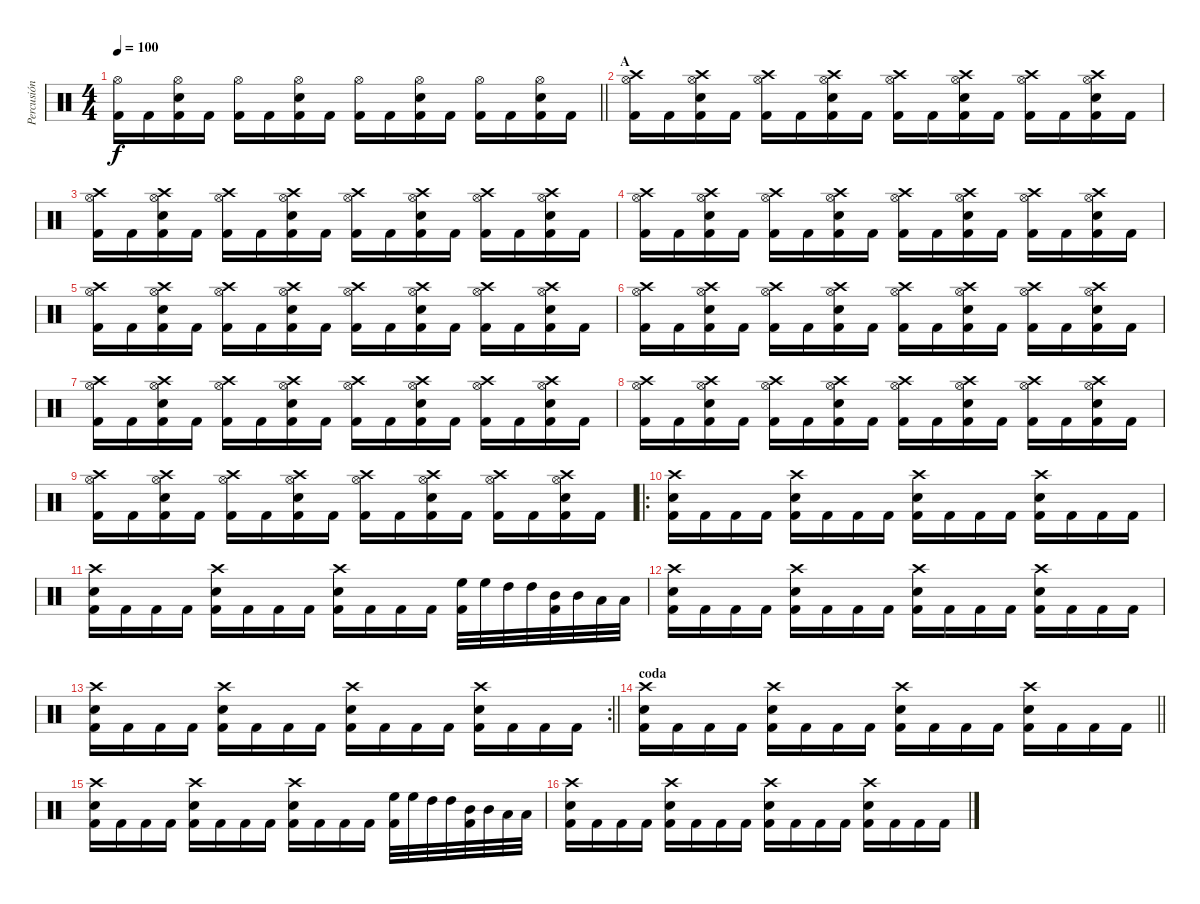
\track ("Percusión" "Percusión") {instrument percussion bank 1}
\staff {score}
\articulation defaults
\ts (4 4)
\tempo 100
\clef neutral
\barLineRight lightlight
\ks c
("Hi-Hat (open)" "Kick (hit) 2").16{dy f} "Kick (hit) 2".16 ("Snare (hit) 2" "Hi-Hat (open)" "Kick (hit) 2").16 "Kick (hit) 2".16 ("Hi-Hat (open)" "Kick (hit) 2").16 "Kick (hit) 2".16 ("Snare (hit) 2" "Hi-Hat (open)" "Kick (hit) 2").16 "Kick (hit) 2".16 ("Hi-Hat (open)" "Kick (hit) 2").16 "Kick (hit) 2".16 ("Snare (hit) 2" "Hi-Hat (open)" "Kick (hit) 2").16 "Kick (hit) 2".16 ("Hi-Hat (open)" "Kick (hit) 2").16 "Kick (hit) 2".16 ("Snare (hit) 2" "Hi-Hat (open)" "Kick (hit) 2").16 "Kick (hit) 2".16 |
\section ("" "A")
("Hi-Hat (open)" "Kick (hit) 2" "Crash high (hit)").16 "Kick (hit) 2".16 ("Snare (hit) 2" "Hi-Hat (open)" "Kick (hit) 2" "Crash high (hit)").16 "Kick (hit) 2".16 ("Hi-Hat (open)" "Kick (hit) 2" "Crash high (hit)").16 "Kick (hit) 2".16 ("Snare (hit) 2" "Hi-Hat (open)" "Kick (hit) 2" "Crash high (hit)").16 "Kick (hit) 2".16 ("Hi-Hat (open)" "Kick (hit) 2" "Crash high (hit)").16 "Kick (hit) 2".16 ("Snare (hit) 2" "Hi-Hat (open)" "Kick (hit) 2" "Crash high (hit)").16 "Kick (hit) 2".16 ("Hi-Hat (open)" "Kick (hit) 2" "Crash high (hit)").16 "Kick (hit) 2".16 ("Snare (hit) 2" "Hi-Hat (open)" "Kick (hit) 2" "Crash high (hit)").16 "Kick (hit) 2".16 |
("Hi-Hat (open)" "Kick (hit) 2" "Crash high (hit)").16 "Kick (hit) 2".16 ("Snare (hit) 2" "Hi-Hat (open)" "Kick (hit) 2" "Crash high (hit)").16 "Kick (hit) 2".16 ("Hi-Hat (open)" "Kick (hit) 2" "Crash high (hit)").16 "Kick (hit) 2".16 ("Snare (hit) 2" "Hi-Hat (open)" "Kick (hit) 2" "Crash high (hit)").16 "Kick (hit) 2".16 ("Hi-Hat (open)" "Kick (hit) 2" "Crash high (hit)").16 "Kick (hit) 2".16 ("Snare (hit) 2" "Hi-Hat (open)" "Kick (hit) 2" "Crash high (hit)").16 "Kick (hit) 2".16 ("Hi-Hat (open)" "Kick (hit) 2" "Crash high (hit)").16 "Kick (hit) 2".16 ("Snare (hit) 2" "Hi-Hat (open)" "Kick (hit) 2" "Crash high (hit)").16 "Kick (hit) 2".16 |
("Hi-Hat (open)" "Kick (hit) 2" "Crash high (hit)").16 "Kick (hit) 2".16 ("Snare (hit) 2" "Hi-Hat (open)" "Kick (hit) 2" "Crash high (hit)").16 "Kick (hit) 2".16 ("Hi-Hat (open)" "Kick (hit) 2" "Crash high (hit)").16 "Kick (hit) 2".16 ("Snare (hit) 2" "Hi-Hat (open)" "Kick (hit) 2" "Crash high (hit)").16 "Kick (hit) 2".16 ("Hi-Hat (open)" "Kick (hit) 2" "Crash high (hit)").16 "Kick (hit) 2".16 ("Snare (hit) 2" "Hi-Hat (open)" "Kick (hit) 2" "Crash high (hit)").16 "Kick (hit) 2".16 ("Hi-Hat (open)" "Kick (hit) 2" "Crash high (hit)").16 "Kick (hit) 2".16 ("Snare (hit) 2" "Hi-Hat (open)" "Kick (hit) 2" "Crash high (hit)").16 "Kick (hit) 2".16 |
("Hi-Hat (open)" "Kick (hit) 2" "Crash high (hit)").16 "Kick (hit) 2".16 ("Snare (hit) 2" "Hi-Hat (open)" "Kick (hit) 2" "Crash high (hit)").16 "Kick (hit) 2".16 ("Hi-Hat (open)" "Kick (hit) 2" "Crash high (hit)").16 "Kick (hit) 2".16 ("Snare (hit) 2" "Hi-Hat (open)" "Kick (hit) 2" "Crash high (hit)").16 "Kick (hit) 2".16 ("Hi-Hat (open)" "Kick (hit) 2" "Crash high (hit)").16 "Kick (hit) 2".16 ("Snare (hit) 2" "Hi-Hat (open)" "Kick (hit) 2" "Crash high (hit)").16 "Kick (hit) 2".16 ("Hi-Hat (open)" "Kick (hit) 2" "Crash high (hit)").16 "Kick (hit) 2".16 ("Snare (hit) 2" "Hi-Hat (open)" "Kick (hit) 2" "Crash high (hit)").16 "Kick (hit) 2".16 |
("Hi-Hat (open)" "Kick (hit) 2" "Crash high (hit)").16 "Kick (hit) 2".16 ("Snare (hit) 2" "Hi-Hat (open)" "Kick (hit) 2" "Crash high (hit)").16 "Kick (hit) 2".16 ("Hi-Hat (open)" "Kick (hit) 2" "Crash high (hit)").16 "Kick (hit) 2".16 ("Snare (hit) 2" "Hi-Hat (open)" "Kick (hit) 2" "Crash high (hit)").16 "Kick (hit) 2".16 ("Hi-Hat (open)" "Kick (hit) 2" "Crash high (hit)").16 "Kick (hit) 2".16 ("Snare (hit) 2" "Hi-Hat (open)" "Kick (hit) 2" "Crash high (hit)").16 "Kick (hit) 2".16 ("Hi-Hat (open)" "Kick (hit) 2" "Crash high (hit)").16 "Kick (hit) 2".16 ("Snare (hit) 2" "Hi-Hat (open)" "Kick (hit) 2" "Crash high (hit)").16 "Kick (hit) 2".16 |
("Hi-Hat (open)" "Kick (hit) 2" "Crash high (hit)").16 "Kick (hit) 2".16 ("Snare (hit) 2" "Hi-Hat (open)" "Kick (hit) 2" "Crash high (hit)").16 "Kick (hit) 2".16 ("Hi-Hat (open)" "Kick (hit) 2" "Crash high (hit)").16 "Kick (hit) 2".16 ("Snare (hit) 2" "Hi-Hat (open)" "Kick (hit) 2" "Crash high (hit)").16 "Kick (hit) 2".16 ("Hi-Hat (open)" "Kick (hit) 2" "Crash high (hit)").16 "Kick (hit) 2".16 ("Snare (hit) 2" "Hi-Hat (open)" "Kick (hit) 2" "Crash high (hit)").16 "Kick (hit) 2".16 ("Hi-Hat (open)" "Kick (hit) 2" "Crash high (hit)").16 "Kick (hit) 2".16 ("Snare (hit) 2" "Hi-Hat (open)" "Kick (hit) 2" "Crash high (hit)").16 "Kick (hit) 2".16 |
("Hi-Hat (open)" "Kick (hit) 2" "Crash high (hit)").16 "Kick (hit) 2".16 ("Snare (hit) 2" "Hi-Hat (open)" "Kick (hit) 2" "Crash high (hit)").16 "Kick (hit) 2".16 ("Hi-Hat (open)" "Kick (hit) 2" "Crash high (hit)").16 "Kick (hit) 2".16 ("Snare (hit) 2" "Hi-Hat (open)" "Kick (hit) 2" "Crash high (hit)").16 "Kick (hit) 2".16 ("Hi-Hat (open)" "Kick (hit) 2" "Crash high (hit)").16 "Kick (hit) 2".16 ("Snare (hit) 2" "Hi-Hat (open)" "Kick (hit) 2" "Crash high (hit)").16 "Kick (hit) 2".16 ("Hi-Hat (open)" "Kick (hit) 2" "Crash high (hit)").16 "Kick (hit) 2".16 ("Snare (hit) 2" "Hi-Hat (open)" "Kick (hit) 2" "Crash high (hit)").16 "Kick (hit) 2".16 |
("Hi-Hat (open)" "Kick (hit) 2" "Crash high (hit)").16 "Kick (hit) 2".16 ("Snare (hit) 2" "Hi-Hat (open)" "Kick (hit) 2" "Crash high (hit)").16 "Kick (hit) 2".16 ("Hi-Hat (open)" "Kick (hit) 2" "Crash high (hit)").16 "Kick (hit) 2".16 ("Snare (hit) 2" "Hi-Hat (open)" "Kick (hit) 2" "Crash high (hit)").16 "Kick (hit) 2".16 ("Hi-Hat (open)" "Kick (hit) 2" "Crash high (hit)").16 "Kick (hit) 2".16 ("Snare (hit) 2" "Hi-Hat (open)" "Kick (hit) 2" "Crash high (hit)").16 "Kick (hit) 2".16 ("Hi-Hat (open)" "Kick (hit) 2" "Crash high (hit)").16 "Kick (hit) 2".16 ("Snare (hit) 2" "Hi-Hat (open)" "Kick (hit) 2" "Crash high (hit)").16 "Kick (hit) 2".16 |
\ro
("Kick (hit) 2" "Crash high (hit)" "Snare (hit) 2").16 "Kick (hit) 2".16 "Kick (hit) 2".16 "Kick (hit) 2".16 ("Kick (hit) 2" "Crash high (hit)" "Snare (hit) 2").16 "Kick (hit) 2".16 "Kick (hit) 2".16 "Kick (hit) 2".16 ("Kick (hit) 2" "Crash high (hit)" "Snare (hit) 2").16 "Kick (hit) 2".16 "Kick (hit) 2".16 "Kick (hit) 2".16 ("Crash high (hit)" "Kick (hit) 2" "Snare (hit) 2").16 "Kick (hit) 2".16 "Kick (hit) 2".16 "Kick (hit) 2".16 |
("Kick (hit) 2" "Crash high (hit)" "Snare (hit) 2").16 "Kick (hit) 2".16 "Kick (hit) 2".16 "Kick (hit) 2".16 ("Kick (hit) 2" "Crash high (hit)" "Snare (hit) 2").16 "Kick (hit) 2".16 "Kick (hit) 2".16 "Kick (hit) 2".16 ("Kick (hit) 2" "Crash high (hit)" "Snare (hit) 2").16 "Kick (hit) 2".16 "Kick (hit) 2".16 "Kick (hit) 2".16 ("High Floor Tom (hit)" "Kick (hit) 2").32 "High Floor Tom (hit)".32 "High Tom (hit)".32 "High Tom (hit)".32 ("Mid Tom (hit)" "Kick (hit) 2").32 "Mid Tom (hit)".32 "Low Tom (hit)".32 "Low Tom (hit)".32 |
("Kick (hit) 2" "Crash high (hit)" "Snare (hit) 2").16 "Kick (hit) 2".16 "Kick (hit) 2".16 "Kick (hit) 2".16 ("Kick (hit) 2" "Crash high (hit)" "Snare (hit) 2").16 "Kick (hit) 2".16 "Kick (hit) 2".16 "Kick (hit) 2".16 ("Kick (hit) 2" "Crash high (hit)" "Snare (hit) 2").16 "Kick (hit) 2".16 "Kick (hit) 2".16 "Kick (hit) 2".16 ("Crash high (hit)" "Kick (hit) 2" "Snare (hit) 2").16 "Kick (hit) 2".16 "Kick (hit) 2".16 "Kick (hit) 2".16 |
\rc 2
\barLineRight lightlight
("Kick (hit) 2" "Crash high (hit)" "Snare (hit) 2").16 "Kick (hit) 2".16 "Kick (hit) 2".16 "Kick (hit) 2".16 ("Kick (hit) 2" "Crash high (hit)" "Snare (hit) 2").16 "Kick (hit) 2".16 "Kick (hit) 2".16 "Kick (hit) 2".16 ("Kick (hit) 2" "Crash high (hit)" "Snare (hit) 2").16 "Kick (hit) 2".16 "Kick (hit) 2".16 "Kick (hit) 2".16 ("Crash high (hit)" "Kick (hit) 2" "Snare (hit) 2").16 "Kick (hit) 2".16 "Kick (hit) 2".16 "Kick (hit) 2".16 |
\section ("" "coda")
\barLineRight lightlight
("Kick (hit) 2" "Crash high (hit)" "Snare (hit) 2").16 "Kick (hit) 2".16 "Kick (hit) 2".16 "Kick (hit) 2".16 ("Kick (hit) 2" "Crash high (hit)" "Snare (hit) 2").16 "Kick (hit) 2".16 "Kick (hit) 2".16 "Kick (hit) 2".16 ("Kick (hit) 2" "Crash high (hit)" "Snare (hit) 2").16 "Kick (hit) 2".16 "Kick (hit) 2".16 "Kick (hit) 2".16 ("Crash high (hit)" "Kick (hit) 2" "Snare (hit) 2").16 "Kick (hit) 2".16 "Kick (hit) 2".16 "Kick (hit) 2".16 |
\section ("" "")
("Kick (hit) 2" "Crash high (hit)" "Snare (hit) 2").16 "Kick (hit) 2".16 "Kick (hit) 2".16 "Kick (hit) 2".16 ("Kick (hit) 2" "Crash high (hit)" "Snare (hit) 2").16 "Kick (hit) 2".16 "Kick (hit) 2".16 "Kick (hit) 2".16 ("Kick (hit) 2" "Crash high (hit)" "Snare (hit) 2").16 "Kick (hit) 2".16 "Kick (hit) 2".16 "Kick (hit) 2".16 ("High Floor Tom (hit)" "Kick (hit) 2").32 "High Floor Tom (hit)".32 "High Tom (hit)".32 "High Tom (hit)".32 ("Mid Tom (hit)" "Kick (hit) 2").32 "Mid Tom (hit)".32 "Low Tom (hit)".32 "Low Tom (hit)".32 |
("Kick (hit) 2" "Crash high (hit)" "Snare (hit) 2").16 "Kick (hit) 2".16 "Kick (hit) 2".16 "Kick (hit) 2".16 ("Kick (hit) 2" "Crash high (hit)" "Snare (hit) 2").16 "Kick (hit) 2".16 "Kick (hit) 2".16 "Kick (hit) 2".16 ("Kick (hit) 2" "Crash high (hit)" "Snare (hit) 2").16 "Kick (hit) 2".16 "Kick (hit) 2".16 "Kick (hit) 2".16 ("Crash high (hit)" "Kick (hit) 2" "Snare (hit) 2").16 "Kick (hit) 2".16 "Kick (hit) 2".16 "Kick (hit) 2".16
